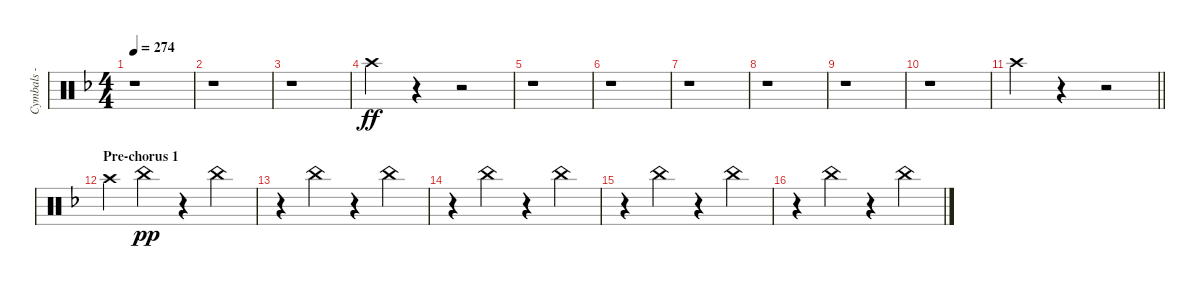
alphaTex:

\track ("Cymbals - crash" "Cymbals - ") {instrument percussion}
\staff {score}
\articulation defaults
\ts (4 4)
\tempo 274
\clef neutral
\ks dminor
r.1{dy ff} |
r.1 |
r.1 |
"Crash high (hit)".4 r.4 r.2 |
r.1 |
r.1 |
r.1 |
r.1 |
r.1 |
r.1 |
\barLineRight lightlight "Crash high (hit)".4
r.4 r.2 |
\section ("" "Pre-chorus 1")
"Crash high (hit)".4 "China (hit)".4{dy pp} r.4 "China (hit)".4 |
r.4 "China (hit)".4 r.4 "China (hit)".4 |
r.4 "China (hit)".4 r.4 "China (hit)".4 |
r.4 "China (hit)".4 r.4 "China (hit)".4 |
r.4 "China (hit)".4 r.4 "China (hit)".4
